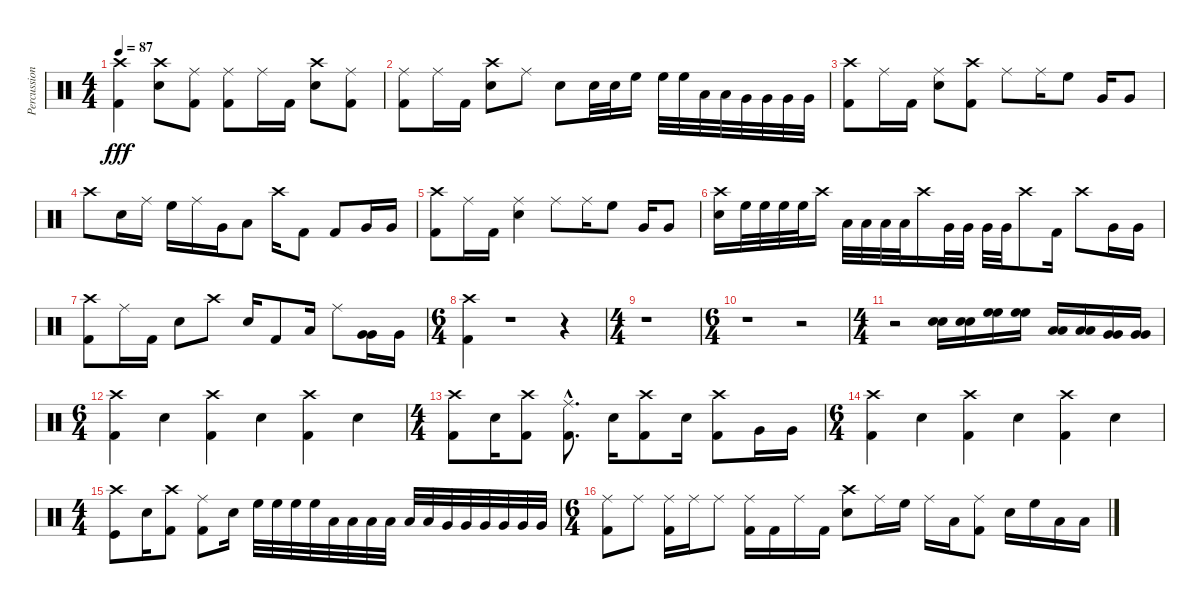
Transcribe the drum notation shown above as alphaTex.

\track ("Percussions" "Percussion") {instrument percussion}
\staff {score}
\articulation defaults
\ts (4 4)
\tempo 87
\clef neutral
\ks c
("Crash high (hit)" "Kick (hit) 2").4{dy fff} ("Electric Snare (hit)" "Crash high (hit)").8 ("Ride (middle)" "Kick (hit) 2").8 ("Ride (middle)" "Kick (hit) 2").8 "Ride (middle)".16 "Kick (hit) 2".16 ("Electric Snare (hit)" "Crash high (hit)").8 ("Ride (middle)" "Kick (hit) 2").8 |
("Ride (middle)" "Kick (hit) 2").8 "Ride (middle)".16 "Kick (hit) 2".16 ("Electric Snare (hit)" "Crash high (hit)").8 "Ride (middle)".8 "Electric Snare (hit)".8 "Electric Snare (hit)".32 "Electric Snare (hit)".32 "High Floor Tom (hit)".16 "High Floor Tom (hit)".32 "High Floor Tom (hit)".32 "Low Tom (hit)".32 "Low Tom (hit)".32 "Very Low Tom (hit)".32 "Very Low Tom (hit)".32 "Very Low Tom (hit)".32 "Very Low Tom (hit)".32 |
("Crash high (hit)" "Kick (hit) 2").8 "Ride (middle)".16 "Kick (hit) 2".16 ("Electric Snare (hit)" "Ride (middle)").8 ("Crash high (hit)" "Kick (hit) 2").8 "Ride (middle)".8 "Ride (middle)".16 "High Floor Tom (hit)".8 "Very Low Tom (hit)".16 "Very Low Tom (hit)".8 |
"Crash high (hit)".8 "Electric Snare (hit)".16 "Ride (middle)".16 "High Floor Tom (hit)".16 "Ride (middle)".16 "Very Low Tom (hit)".16 "Low Tom (hit)".8 "Crash high (hit)".16 "Kick (hit) 2".8 "Kick (hit) 2".8 "Very Low Tom (hit)".16 "Very Low Tom (hit)".16 |
("Crash high (hit)" "Kick (hit) 2").8 "Ride (middle)".16 "Kick (hit) 2".16 ("Electric Snare (hit)" "Ride (middle)").4 "Ride (middle)".8 "Ride (middle)".16 "High Floor Tom (hit)".8 "Very Low Tom (hit)".16 "Very Low Tom (hit)".8 |
("Electric Snare (hit)" "Crash high (hit)").16 "High Floor Tom (hit)".32 "High Floor Tom (hit)".32 "High Floor Tom (hit)".32 "High Floor Tom (hit)".32 "Crash high (hit)".16 "Low Tom (hit)".32 "Low Tom (hit)".32 "Low Tom (hit)".32 "Low Tom (hit)".32 "Crash high (hit)".16 "Very Low Tom (hit)".32 "Very Low Tom (hit)".32 "Very Low Tom (hit)".32 "Very Low Tom (hit)".32 "Crash high (hit)".8 "Kick (hit) 2".16 "Crash high (hit)".8 "Very Low Tom (hit)".16 "Very Low Tom (hit)".16 |
("Crash high (hit)" "Kick (hit) 2").8 "Ride (middle)".16 "Kick (hit) 2".16 "Electric Snare (hit)".8 "Crash high (hit)".8 "Electric Snare (hit)".16 "Kick (hit) 2".8 "Low Tom (hit)".16 "Ride (middle)".8 ("Very Low Tom (hit)" "Very Low Tom (hit)").16 "Very Low Tom (hit)".16 |
\ts (6 4)
("Crash high (hit)" "Kick (hit) 2").4 r.1 r.4 |
\ts (4 4)
r.1 |
\ts (6 4)
r.1 r.2 |
\ts (4 4)
r.2 ("Electric Snare (hit)" "Electric Snare (hit)").16 ("Electric Snare (hit)" "Electric Snare (hit)").16 ("High Floor Tom (hit)" "High Floor Tom (hit)").16 ("High Floor Tom (hit)" "High Floor Tom (hit)").16 ("Low Tom (hit)" "Low Tom (hit)").16 ("Low Tom (hit)" "Low Tom (hit)").16 ("Very Low Tom (hit)" "Very Low Tom (hit)").16 ("Very Low Tom (hit)" "Very Low Tom (hit)").16 |
\ts (6 4)
("Crash high (hit)" "Kick (hit) 2").4 "Electric Snare (hit)".4 ("Crash high (hit)" "Kick (hit) 2").4 "Electric Snare (hit)".4 ("Crash high (hit)" "Kick (hit) 2").4 "Electric Snare (hit)".4 |
\ts (4 4)
("Crash high (hit)" "Kick (hit) 2").8 "Electric Snare (hit)".16 ("Crash high (hit)" "Kick (hit) 2").8 ("Ride (middle)"{hac} "Kick (hit) 2"{hac}).8{d} "Electric Snare (hit)".16 ("Crash high (hit)" "Kick (hit) 2").8 "Electric Snare (hit)".16 ("Crash high (hit)" "Kick (hit) 2").8 "Very Low Tom (hit)".16 "Very Low Tom (hit)".16 |
\ts (6 4)
("Crash high (hit)" "Kick (hit) 2").4 "Electric Snare (hit)".4 ("Crash high (hit)" "Kick (hit) 2").4 "Electric Snare (hit)".4 ("Crash high (hit)" "Kick (hit) 2").4 "Electric Snare (hit)".4 |
\ts (4 4)
("Crash high (hit)" "Kick (hit)").8 "Electric Snare (hit)".16 ("Crash high (hit)" "Kick (hit) 2").8 ("Ride (middle)" "Kick (hit) 2").8 "Electric Snare (hit)".16 "High Floor Tom (hit)".32 "High Floor Tom (hit)".32 "High Floor Tom (hit)".32 "High Floor Tom (hit)".32 "Low Tom (hit)".32 "Low Tom (hit)".32 "Low Tom (hit)".32 "Low Tom (hit)".32 "Low Tom (hit)".32 "Low Tom (hit)".32 "Very Low Tom (hit)".32 "Very Low Tom (hit)".32 "Very Low Tom (hit)".32 "Very Low Tom (hit)".32 "Very Low Tom (hit)".32 "Very Low Tom (hit)".32 |
\ts (6 4)
("Ride (middle)" "Kick (hit) 2").8 "Ride (middle)".8 ("Ride (middle)" "Kick (hit) 2").16 "Ride (middle)".16 "Ride (middle)".8 ("Ride (middle)" "Kick (hit) 2").16 "Kick (hit) 2".16 "Ride (middle)".16 "Kick (hit) 2".16 ("Electric Snare (hit)" "Crash high (hit)").8 "Ride (middle)".16 "High Floor Tom (hit)".16 "Ride (middle)".16 "Low Tom (hit)".16 ("Ride (middle)" "Kick (hit) 2").8 "Electric Snare (hit)".16 "High Floor Tom (hit)".16 "Low Tom (hit)".16 "Low Tom (hit)".16
